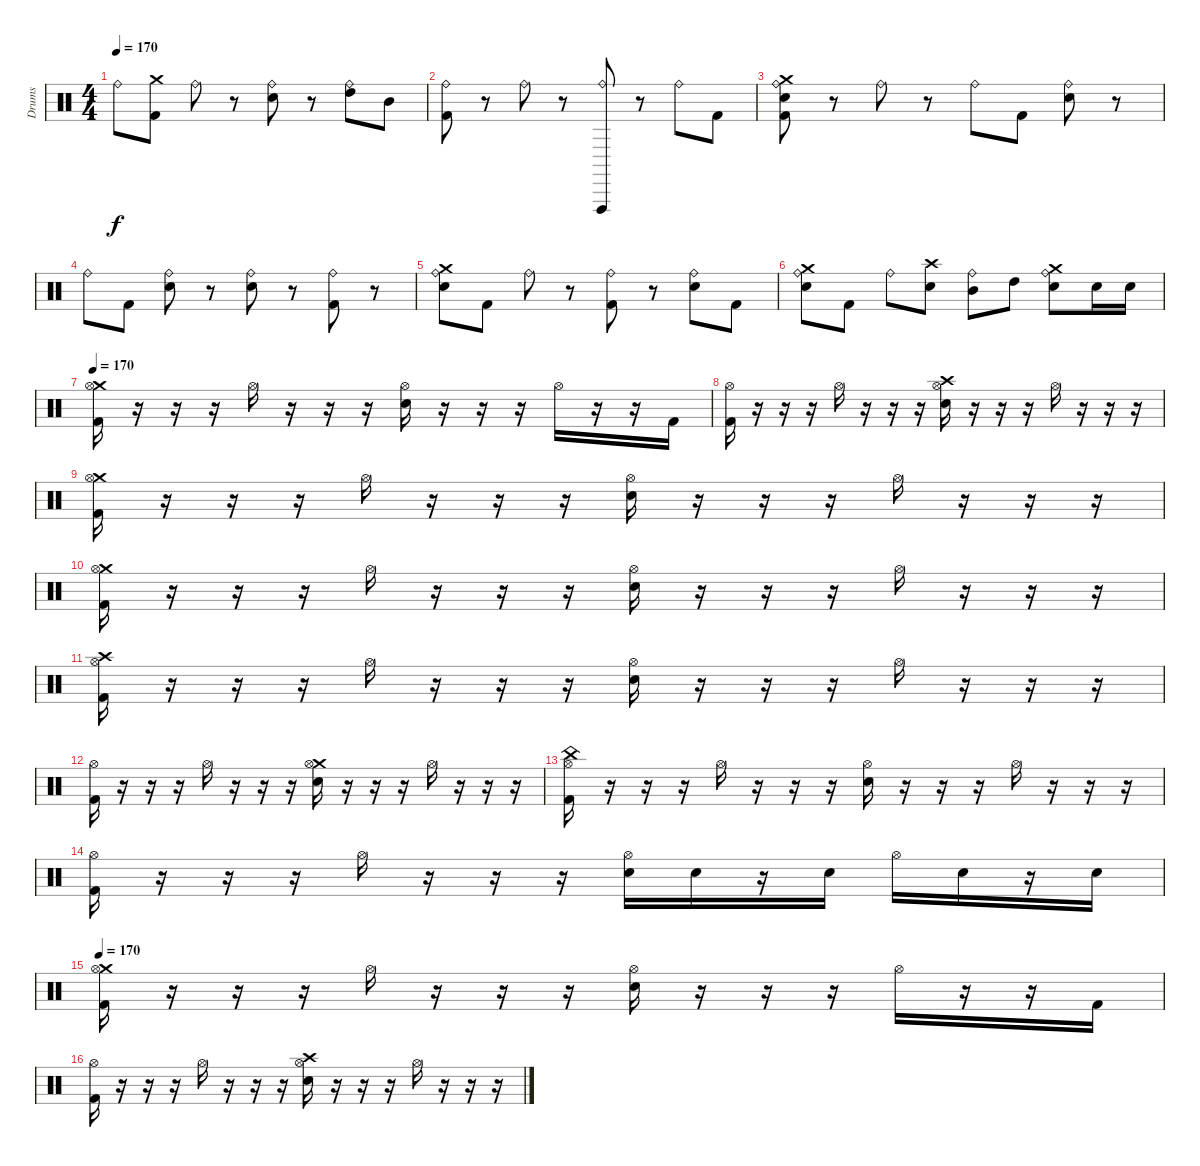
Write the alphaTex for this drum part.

\track ("Drums" "Drums") {instrument percussion}
\staff {score}
\articulation defaults
\ts (4 4)
\tempo 170
\clef neutral
\ks c "Ride (bell)".8{dy f}
("Crash medium (hit)" "Kick (hit) 2").8 "Ride (bell)".8 r.8 ("Ride (bell)" "Electric Snare (hit)").8 r.8 ("Ride (bell)" "High Tom (hit)").8 "Mid Tom (hit)".8 |
("Ride (bell)" "Kick (hit) 2").8 r.8 "Ride (bell)".8 r.8 ("Vibraslap (hit)" "Ride (bell)").8 r.8 "Ride (bell)".8 "Kick (hit) 2".8 |
("Crash medium (hit)" "Ride (bell)" "Electric Snare (hit)" "Kick (hit) 2").8 r.8 "Ride (bell)".8 r.8 "Ride (bell)".8 "Kick (hit) 2".8 ("Ride (bell)" "Electric Snare (hit)").8 r.8 |
"Ride (bell)".8 "Kick (hit) 2".8 ("Ride (bell)" "Electric Snare (hit)").8 r.8 ("Ride (bell)" "Electric Snare (hit)").8 r.8 ("Ride (bell)" "Kick (hit) 2").8 r.8 |
("Crash medium (hit)" "Ride (bell)" "Electric Snare (hit)").8 "Kick (hit) 2".8 "Ride (bell)".8 r.8 ("Ride (bell)" "Kick (hit) 2").8 r.8 ("Ride (bell)" "Electric Snare (hit)").8 "Kick (hit) 2".8 |
("Crash medium (hit)" "Ride (bell)" "Electric Snare (hit)").8 "Kick (hit) 2".8 "Ride (bell)".8 ("Crash high (hit)" "Electric Snare (hit)").8 ("Ride (bell)" "Mid Tom (hit)").8 "High Tom (hit)".8 ("Crash medium (hit)" "Ride (bell)" "Electric Snare (hit)").8 "Electric Snare (hit)".16 "Electric Snare (hit)".16 |
\tempo 170
("Crash medium (hit)" "Hi-Hat (open)" "Kick (hit) 2").16 r.16 r.16 r.16 "Hi-Hat (open)".16 r.16 r.16 r.16 ("Hi-Hat (open)" "Electric Snare (hit)").16 r.16 r.16 r.16 "Hi-Hat (open)".16 r.16 r.16 "Kick (hit) 2".16 |
("Hi-Hat (open)" "Kick (hit) 2").16 r.16 r.16 r.16 "Hi-Hat (open)".16 r.16 r.16 r.16 ("Crash high (hit)" "Hi-Hat (open)" "Electric Snare (hit)").16 r.16 r.16 r.16 "Hi-Hat (open)".16 r.16 r.16 r.16 |
("Crash medium (hit)" "Hi-Hat (open)" "Kick (hit) 2").16 r.16 r.16 r.16 "Hi-Hat (open)".16 r.16 r.16 r.16 ("Hi-Hat (open)" "Electric Snare (hit)").16 r.16 r.16 r.16 "Hi-Hat (open)".16 r.16 r.16 r.16 |
("Crash medium (hit)" "Hi-Hat (open)" "Kick (hit) 2").16 r.16 r.16 r.16 "Hi-Hat (open)".16 r.16 r.16 r.16 ("Hi-Hat (open)" "Electric Snare (hit)").16 r.16 r.16 r.16 "Hi-Hat (open)".16 r.16 r.16 r.16 |
("Crash high (hit)" "Hi-Hat (open)" "Kick (hit) 2").16 r.16 r.16 r.16 "Hi-Hat (open)".16 r.16 r.16 r.16 ("Hi-Hat (open)" "Electric Snare (hit)").16 r.16 r.16 r.16 "Hi-Hat (open)".16 r.16 r.16 r.16 |
("Hi-Hat (open)" "Kick (hit) 2").16 r.16 r.16 r.16 "Hi-Hat (open)".16 r.16 r.16 r.16 ("Crash medium (hit)" "Hi-Hat (open)" "Electric Snare (hit)").16 r.16 r.16 r.16 "Hi-Hat (open)".16 r.16 r.16 r.16 |
("China (hit)" "Hi-Hat (open)" "Kick (hit) 2").16 r.16 r.16 r.16 "Hi-Hat (open)".16 r.16 r.16 r.16 ("Hi-Hat (open)" "Electric Snare (hit)").16 r.16 r.16 r.16 "Hi-Hat (open)".16 r.16 r.16 r.16 |
("Hi-Hat (open)" "Kick (hit) 2").16 r.16 r.16 r.16 "Hi-Hat (open)".16 r.16 r.16 r.16 ("Hi-Hat (open)" "Electric Snare (hit)").16 "Electric Snare (hit)".16 r.16 "Electric Snare (hit)".16 "Hi-Hat (open)".16 "Electric Snare (hit)".16 r.16 "Electric Snare (hit)".16 |
\tempo 170
("Crash medium (hit)" "Hi-Hat (open)" "Kick (hit) 2").16 r.16 r.16 r.16 "Hi-Hat (open)".16 r.16 r.16 r.16 ("Hi-Hat (open)" "Electric Snare (hit)").16 r.16 r.16 r.16 "Hi-Hat (open)".16 r.16 r.16 "Kick (hit) 2".16 |
("Hi-Hat (open)" "Kick (hit) 2").16 r.16 r.16 r.16 "Hi-Hat (open)".16 r.16 r.16 r.16 ("Crash high (hit)" "Hi-Hat (open)" "Electric Snare (hit)").16 r.16 r.16 r.16 "Hi-Hat (open)".16 r.16 r.16 r.16
